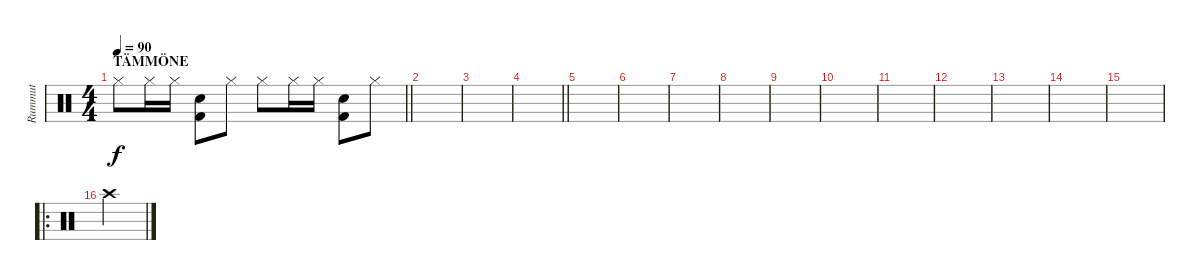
\track ("Rummut" "Rummut") {instrument percussion}
\staff {score}
\articulation defaults
\ts (4 4)
\section ("" "TÄMMÖNE")
\tempo 90
\clef neutral
\barLineRight lightlight
\ks c "Hi-Hat (closed)".8{dy f} "Hi-Hat (closed)".16 "Hi-Hat (closed)".16
("Snare (hit) 2" "Kick (hit) 2").8 "Hi-Hat (closed)".8 "Hi-Hat (closed)".8 "Hi-Hat (closed)".16 "Hi-Hat (closed)".16 ("Snare (hit) 2" "Kick (hit) 2").8 "Hi-Hat (closed)".8 |
|
|
\barLineRight lightlight
|
|
|
|
|
|
|
|
|
|
|
|
\ro "Crash high (hit)".4
